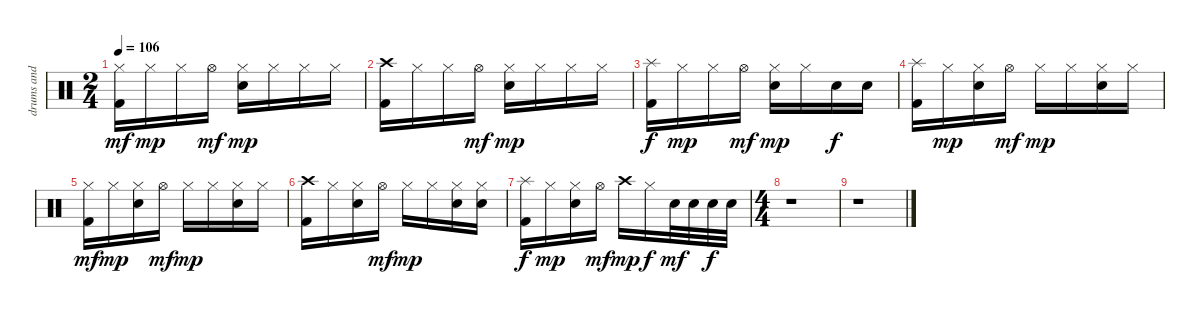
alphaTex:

\track ("drums and percussion" "drums and ") {instrument percussion}
\staff {score}
\articulation defaults
\ts (2 4)
\tempo 106
\clef neutral
\ks c
("Hi-Hat (closed)" "Kick (hit) 2").16{dy mf} "Hi-Hat (closed)".16{dy mp} "Hi-Hat (closed)".16 "Hi-Hat (open)".16{dy mf} ("Hi-Hat (closed)" "Electric Snare (hit)").16{dy mp} "Hi-Hat (closed)".16 "Hi-Hat (closed)".16 "Hi-Hat (closed)".16 |
("Crash high (hit)" "Kick (hit) 2").16 "Hi-Hat (closed)".16 "Hi-Hat (closed)".16 "Hi-Hat (open)".16{dy mf} ("Hi-Hat (closed)" "Electric Snare (hit)").16{dy mp} "Hi-Hat (closed)".16 "Hi-Hat (closed)".16 "Hi-Hat (closed)".16 |
("Splash (hit)" "Kick (hit) 2").16{dy f} "Hi-Hat (closed)".16{dy mp} "Hi-Hat (closed)".16 "Hi-Hat (open)".16{dy mf} ("Hi-Hat (closed)" "Electric Snare (hit)").16{dy mp} "Hi-Hat (closed)".16 "Electric Snare (hit)".16{dy f} "Electric Snare (hit)".16 |
("Splash (hit)" "Kick (hit) 2").16 "Hi-Hat (closed)".16{dy mp} ("Hi-Hat (closed)" "Electric Snare (hit)").16 "Hi-Hat (open)".16{dy mf} "Hi-Hat (closed)".16{dy mp} "Hi-Hat (closed)".16 ("Hi-Hat (closed)" "Electric Snare (hit)").16 "Hi-Hat (closed)".16 |
("Hi-Hat (closed)" "Kick (hit) 2").16{dy mf} "Hi-Hat (closed)".16{dy mp} ("Hi-Hat (closed)" "Electric Snare (hit)").16 "Hi-Hat (open)".16{dy mf} "Hi-Hat (closed)".16{dy mp} "Hi-Hat (closed)".16 ("Hi-Hat (closed)" "Electric Snare (hit)").16 "Hi-Hat (closed)".16 |
("Crash high (hit)" "Kick (hit) 2").16 "Hi-Hat (closed)".16 ("Hi-Hat (closed)" "Electric Snare (hit)").16 "Hi-Hat (open)".16{dy mf} "Hi-Hat (closed)".16{dy mp} "Hi-Hat (closed)".16 ("Hi-Hat (closed)" "Electric Snare (hit)").16 ("Hi-Hat (closed)" "Electric Snare (hit)").16 |
("Splash (hit)" "Kick (hit) 2").16{dy f} "Hi-Hat (closed)".16{dy mp} ("Hi-Hat (closed)" "Electric Snare (hit)").16 "Hi-Hat (open)".16{dy mf} "Crash high (hit)".16{dy mp} "Hi-Hat (closed)".16{dy f} "Electric Snare (hit)".32{dy mf} "Electric Snare (hit)".32 "Electric Snare (hit)".32{dy f} "Electric Snare (hit)".32 |
\ts (4 4)
r.1 |
r.1
